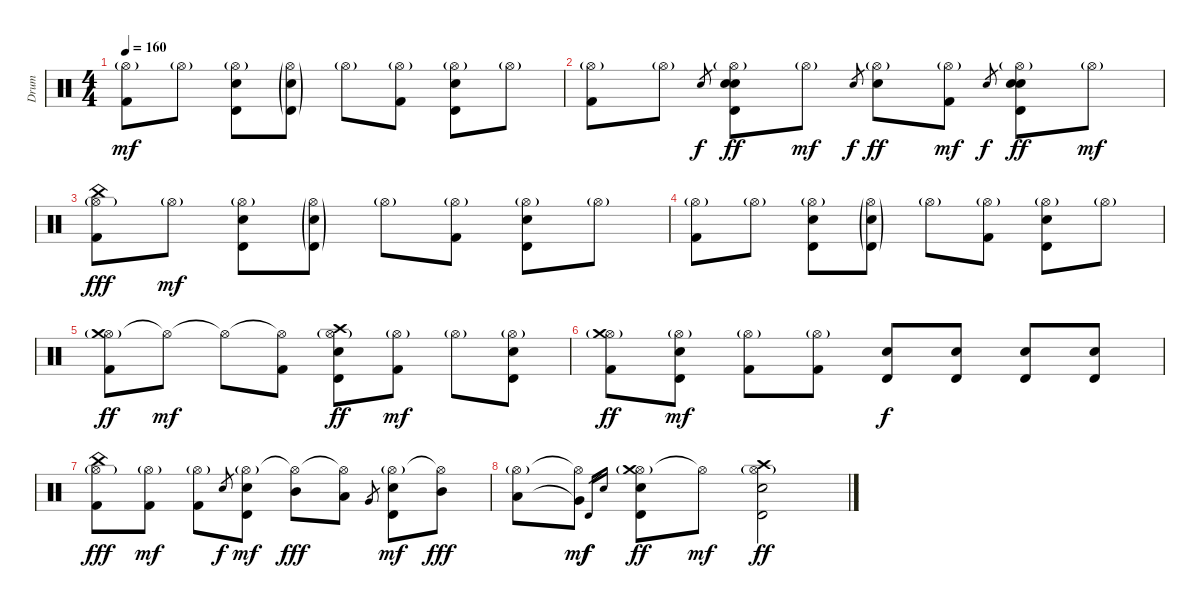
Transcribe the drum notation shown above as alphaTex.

\track ("Drum" "Drum") {instrument percussion}
\staff {score}
\articulation defaults
\ts (4 4)
\tempo 160
\clef neutral
\ks c
("Hi-Hat (open)"{g} "Kick (hit) 2").8{dy mf} "Hi-Hat (open)"{g}.8 ("Hi-Hat (open)"{g} "Timbale high (hit)" "Electric Snare (hit)").8 ("Hi-Hat (open)"{g} "Timbale high (hit)"{g} "Electric Snare (hit)"{g}).8 "Hi-Hat (open)"{g}.8 ("Hi-Hat (open)"{g} "Kick (hit) 2").8 ("Hi-Hat (open)"{g} "Timbale high (hit)" "Electric Snare (hit)").8 "Hi-Hat (open)"{g}.8 |
("Hi-Hat (open)"{g} "Kick (hit) 2").8 "Hi-Hat (open)"{g}.8 "Hand Clap (hit)"{sl}.8{gr dy f} ("Hi-Hat (open)"{g} "Hand Clap (hit)" "Timbale high (hit)" "Electric Snare (hit)").8{dy ff} "Hi-Hat (open)"{g}.8{dy mf} "Hand Clap (hit)"{sl}.8{gr dy f} ("Hi-Hat (open)"{g} "Hand Clap (hit)").8{dy ff} ("Hi-Hat (open)"{g} "Kick (hit) 2").8{dy mf} "Hand Clap (hit)"{sl}.8{gr dy f} ("Hi-Hat (open)"{g} "Hand Clap (hit)" "Timbale high (hit)" "Electric Snare (hit)").8{dy ff} "Hi-Hat (open)"{g}.8{dy mf} |
("Hi-Hat (open)"{g} "China (hit)" "Kick (hit) 2").8{dy fff} "Hi-Hat (open)"{g}.8{dy mf} ("Hi-Hat (open)"{g} "Timbale high (hit)" "Electric Snare (hit)").8 ("Hi-Hat (open)"{g} "Timbale high (hit)"{g} "Electric Snare (hit)"{g}).8 "Hi-Hat (open)"{g}.8 ("Hi-Hat (open)"{g} "Kick (hit) 2").8 ("Hi-Hat (open)"{g} "Timbale high (hit)" "Electric Snare (hit)").8 "Hi-Hat (open)"{g}.8 |
("Hi-Hat (open)"{g} "Kick (hit) 2").8 "Hi-Hat (open)"{g}.8 ("Hi-Hat (open)"{g} "Timbale high (hit)" "Electric Snare (hit)").8 ("Hi-Hat (open)"{g} "Timbale high (hit)"{g} "Electric Snare (hit)"{g}).8 "Hi-Hat (open)"{g}.8 ("Hi-Hat (open)"{g} "Kick (hit) 2").8 ("Hi-Hat (open)"{g} "Timbale high (hit)" "Electric Snare (hit)").8 "Hi-Hat (open)"{g}.8 |
("Hi-Hat (open)"{g} "Crash medium (hit)" "Kick (hit) 2").8{dy ff} "Hi-Hat (open)"{t}.8{dy mf} "Hi-Hat (open)"{t}.8 ("Hi-Hat (open)"{t} "Kick (hit) 2").8 ("Hi-Hat (open)"{g} "Crash high (hit)" "Timbale high (hit)" "Electric Snare (hit)").8{dy ff} ("Hi-Hat (open)"{g} "Kick (hit) 2").8{dy mf} "Hi-Hat (open)"{g}.8 ("Hi-Hat (open)"{g} "Timbale high (hit)" "Electric Snare (hit)").8 |
("Hi-Hat (open)"{g} "Crash medium (hit)" "Kick (hit) 2").8{dy ff} ("Hi-Hat (open)"{g} "Timbale high (hit)" "Electric Snare (hit)").8{dy mf} ("Hi-Hat (open)"{g} "Kick (hit) 2").8 ("Hi-Hat (open)"{g} "Kick (hit) 2").8 ("Timbale high (hit)" "Electric Snare (hit)").8{dy f} ("Timbale high (hit)" "Electric Snare (hit)").8 ("Timbale high (hit)" "Electric Snare (hit)").8 ("Timbale high (hit)" "Electric Snare (hit)").8 |
("Hi-Hat (open)"{g} "China (hit)" "Kick (hit) 2").8{dy fff} ("Hi-Hat (open)"{g} "Kick (hit) 2").8{dy mf} ("Hi-Hat (open)"{g} "Kick (hit) 2").8 "Electric Snare (hit)".8{gr dy f} ("Hi-Hat (open)"{g} "Timbale high (hit)" "Electric Snare (hit)").8{dy mf} ("Hi-Hat (open)"{t} "Mid Tom (hit)").8{dy fff} ("Hi-Hat (open)"{t} "Low Tom (hit)").8 "Very Low Tom (hit)".8{gr} ("Hi-Hat (open)"{g} "Timbale high (hit)" "Electric Snare (hit)").8{dy mf} ("Hi-Hat (open)"{t} "Mid Tom (hit)").8{dy fff} |
("Hi-Hat (open)"{g} "Low Tom (hit)").8 ("Hi-Hat (open)"{t} "Very Low Tom (hit)"{t}).8{dy mf} "Timbale high (hit)".16{gr dy f} "Electric Snare (hit)".16{gr} ("Hi-Hat (open)"{g} "Crash medium (hit)" "Timbale high (hit)" "Electric Snare (hit)").8{dy ff} "Hi-Hat (open)"{t}.8{dy mf} ("Hi-Hat (open)"{g} "Crash high (hit)" "Timbale high (hit)" "Electric Snare (hit)").2{dy ff}
